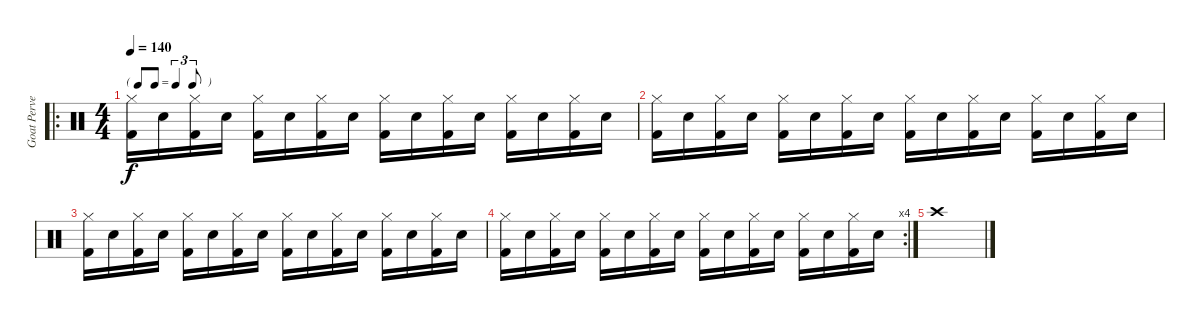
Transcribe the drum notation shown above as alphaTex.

\track ("Goat Pervertor" "Goat Perve") {instrument percussion}
\staff {score}
\articulation defaults
\ro
\ts (4 4)
\tf triplet8th
\tempo 140
\clef neutral
\ks c
("Hi-Hat (closed)" "Kick (hit) 2").16{dy f} "Snare (hit) 2".16 ("Hi-Hat (closed)" "Kick (hit) 2").16 "Snare (hit) 2".16 ("Hi-Hat (closed)" "Kick (hit) 2").16 "Snare (hit) 2".16 ("Hi-Hat (closed)" "Kick (hit) 2").16 "Snare (hit) 2".16 ("Hi-Hat (closed)" "Kick (hit) 2").16 "Snare (hit) 2".16 ("Hi-Hat (closed)" "Kick (hit) 2").16 "Snare (hit) 2".16 ("Hi-Hat (closed)" "Kick (hit) 2").16 "Snare (hit) 2".16 ("Hi-Hat (closed)" "Kick (hit) 2").16 "Snare (hit) 2".16 |
("Hi-Hat (closed)" "Kick (hit) 2").16 "Snare (hit) 2".16 ("Hi-Hat (closed)" "Kick (hit) 2").16 "Snare (hit) 2".16 ("Hi-Hat (closed)" "Kick (hit) 2").16 "Snare (hit) 2".16 ("Hi-Hat (closed)" "Kick (hit) 2").16 "Snare (hit) 2".16 ("Hi-Hat (closed)" "Kick (hit) 2").16 "Snare (hit) 2".16 ("Hi-Hat (closed)" "Kick (hit) 2").16 "Snare (hit) 2".16 ("Hi-Hat (closed)" "Kick (hit) 2").16 "Snare (hit) 2".16 ("Hi-Hat (closed)" "Kick (hit) 2").16 "Snare (hit) 2".16 |
("Hi-Hat (closed)" "Kick (hit) 2").16 "Snare (hit) 2".16 ("Hi-Hat (closed)" "Kick (hit) 2").16 "Snare (hit) 2".16 ("Hi-Hat (closed)" "Kick (hit) 2").16 "Snare (hit) 2".16 ("Hi-Hat (closed)" "Kick (hit) 2").16 "Snare (hit) 2".16 ("Hi-Hat (closed)" "Kick (hit) 2").16 "Snare (hit) 2".16 ("Hi-Hat (closed)" "Kick (hit) 2").16 "Snare (hit) 2".16 ("Hi-Hat (closed)" "Kick (hit) 2").16 "Snare (hit) 2".16 ("Hi-Hat (closed)" "Kick (hit) 2").16 "Snare (hit) 2".16 |
\rc 4
("Hi-Hat (closed)" "Kick (hit) 2").16 "Snare (hit) 2".16 ("Hi-Hat (closed)" "Kick (hit) 2").16 "Snare (hit) 2".16 ("Hi-Hat (closed)" "Kick (hit) 2").16 "Snare (hit) 2".16 ("Hi-Hat (closed)" "Kick (hit) 2").16 "Snare (hit) 2".16 ("Hi-Hat (closed)" "Kick (hit) 2").16 "Snare (hit) 2".16 ("Hi-Hat (closed)" "Kick (hit) 2").16 "Snare (hit) 2".16 ("Hi-Hat (closed)" "Kick (hit) 2").16 "Snare (hit) 2".16 ("Hi-Hat (closed)" "Kick (hit) 2").16 "Snare (hit) 2".16 |
"Crash high (hit)".1
